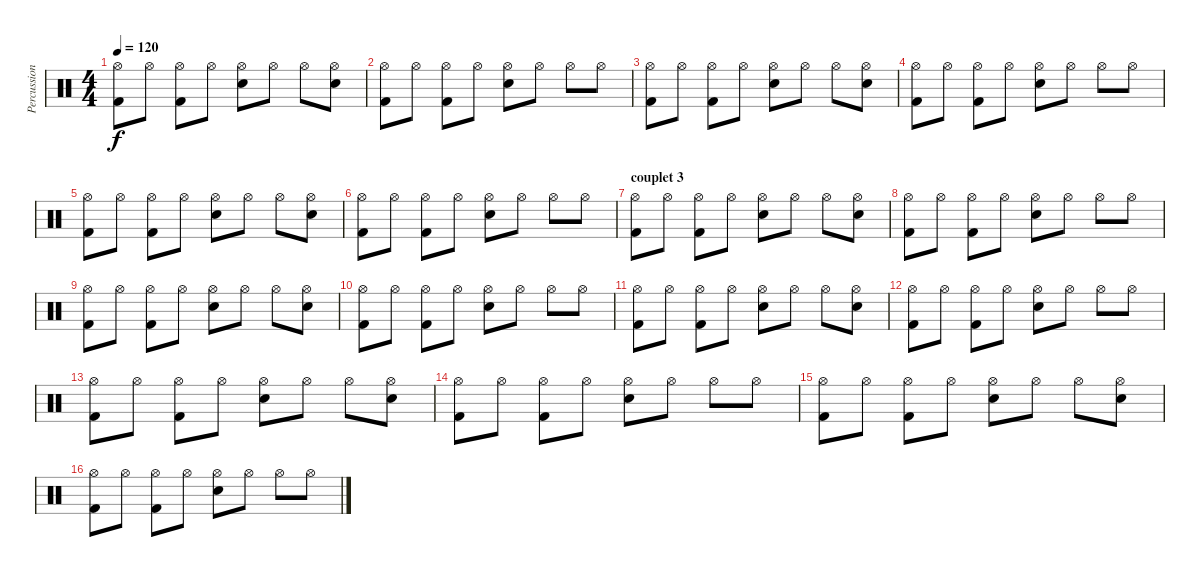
\track ("Percussions" "Percussion") {instrument percussion}
\staff {score}
\articulation defaults
\ts (4 4)
\tempo 120
\clef neutral
\ks c
("Hi-Hat (open)" "Kick (hit) 2").8{dy f} "Hi-Hat (open)".8 ("Hi-Hat (open)" "Kick (hit) 2").8 "Hi-Hat (open)".8 ("Hi-Hat (open)" "Electric Snare (hit)").8 "Hi-Hat (open)".8 "Hi-Hat (open)".8 ("Hi-Hat (open)" "Electric Snare (hit)").8 |
("Hi-Hat (open)" "Kick (hit) 2").8 "Hi-Hat (open)".8 ("Hi-Hat (open)" "Kick (hit) 2").8 "Hi-Hat (open)".8 ("Hi-Hat (open)" "Electric Snare (hit)").8 "Hi-Hat (open)".8 "Hi-Hat (open)".8 "Hi-Hat (open)".8 |
("Hi-Hat (open)" "Kick (hit) 2").8 "Hi-Hat (open)".8 ("Hi-Hat (open)" "Kick (hit) 2").8 "Hi-Hat (open)".8 ("Hi-Hat (open)" "Electric Snare (hit)").8 "Hi-Hat (open)".8 "Hi-Hat (open)".8 ("Hi-Hat (open)" "Electric Snare (hit)").8 |
("Hi-Hat (open)" "Kick (hit) 2").8 "Hi-Hat (open)".8 ("Hi-Hat (open)" "Kick (hit) 2").8 "Hi-Hat (open)".8 ("Hi-Hat (open)" "Electric Snare (hit)").8 "Hi-Hat (open)".8 "Hi-Hat (open)".8 "Hi-Hat (open)".8 |
("Hi-Hat (open)" "Kick (hit) 2").8 "Hi-Hat (open)".8 ("Hi-Hat (open)" "Kick (hit) 2").8 "Hi-Hat (open)".8 ("Hi-Hat (open)" "Electric Snare (hit)").8 "Hi-Hat (open)".8 "Hi-Hat (open)".8 ("Hi-Hat (open)" "Electric Snare (hit)").8 |
("Hi-Hat (open)" "Kick (hit) 2").8 "Hi-Hat (open)".8 ("Hi-Hat (open)" "Kick (hit) 2").8 "Hi-Hat (open)".8 ("Hi-Hat (open)" "Electric Snare (hit)").8 "Hi-Hat (open)".8 "Hi-Hat (open)".8 "Hi-Hat (open)".8 |
\section ("" "couplet 3")
("Hi-Hat (open)" "Kick (hit) 2").8 "Hi-Hat (open)".8 ("Hi-Hat (open)" "Kick (hit) 2").8 "Hi-Hat (open)".8 ("Hi-Hat (open)" "Electric Snare (hit)").8 "Hi-Hat (open)".8 "Hi-Hat (open)".8 ("Hi-Hat (open)" "Electric Snare (hit)").8 |
("Hi-Hat (open)" "Kick (hit) 2").8 "Hi-Hat (open)".8 ("Hi-Hat (open)" "Kick (hit) 2").8 "Hi-Hat (open)".8 ("Hi-Hat (open)" "Electric Snare (hit)").8 "Hi-Hat (open)".8 "Hi-Hat (open)".8 "Hi-Hat (open)".8 |
("Hi-Hat (open)" "Kick (hit) 2").8 "Hi-Hat (open)".8 ("Hi-Hat (open)" "Kick (hit) 2").8 "Hi-Hat (open)".8 ("Hi-Hat (open)" "Electric Snare (hit)").8 "Hi-Hat (open)".8 "Hi-Hat (open)".8 ("Hi-Hat (open)" "Electric Snare (hit)").8 |
("Hi-Hat (open)" "Kick (hit) 2").8 "Hi-Hat (open)".8 ("Hi-Hat (open)" "Kick (hit) 2").8 "Hi-Hat (open)".8 ("Hi-Hat (open)" "Electric Snare (hit)").8 "Hi-Hat (open)".8 "Hi-Hat (open)".8 "Hi-Hat (open)".8 |
("Hi-Hat (open)" "Kick (hit) 2").8 "Hi-Hat (open)".8 ("Hi-Hat (open)" "Kick (hit) 2").8 "Hi-Hat (open)".8 ("Hi-Hat (open)" "Electric Snare (hit)").8 "Hi-Hat (open)".8 "Hi-Hat (open)".8 ("Hi-Hat (open)" "Electric Snare (hit)").8 |
("Hi-Hat (open)" "Kick (hit) 2").8 "Hi-Hat (open)".8 ("Hi-Hat (open)" "Kick (hit) 2").8 "Hi-Hat (open)".8 ("Hi-Hat (open)" "Electric Snare (hit)").8 "Hi-Hat (open)".8 "Hi-Hat (open)".8 "Hi-Hat (open)".8 |
("Hi-Hat (open)" "Kick (hit) 2").8 "Hi-Hat (open)".8 ("Hi-Hat (open)" "Kick (hit) 2").8 "Hi-Hat (open)".8 ("Hi-Hat (open)" "Electric Snare (hit)").8 "Hi-Hat (open)".8 "Hi-Hat (open)".8 ("Hi-Hat (open)" "Electric Snare (hit)").8 |
("Hi-Hat (open)" "Kick (hit) 2").8 "Hi-Hat (open)".8 ("Hi-Hat (open)" "Kick (hit) 2").8 "Hi-Hat (open)".8 ("Hi-Hat (open)" "Electric Snare (hit)").8 "Hi-Hat (open)".8 "Hi-Hat (open)".8 "Hi-Hat (open)".8 |
("Hi-Hat (open)" "Kick (hit) 2").8 "Hi-Hat (open)".8 ("Hi-Hat (open)" "Kick (hit) 2").8 "Hi-Hat (open)".8 ("Hi-Hat (open)" "Electric Snare (hit)").8 "Hi-Hat (open)".8 "Hi-Hat (open)".8 ("Hi-Hat (open)" "Electric Snare (hit)").8 |
("Hi-Hat (open)" "Kick (hit) 2").8 "Hi-Hat (open)".8 ("Hi-Hat (open)" "Kick (hit) 2").8 "Hi-Hat (open)".8 ("Hi-Hat (open)" "Electric Snare (hit)").8 "Hi-Hat (open)".8 "Hi-Hat (open)".8 "Hi-Hat (open)".8
